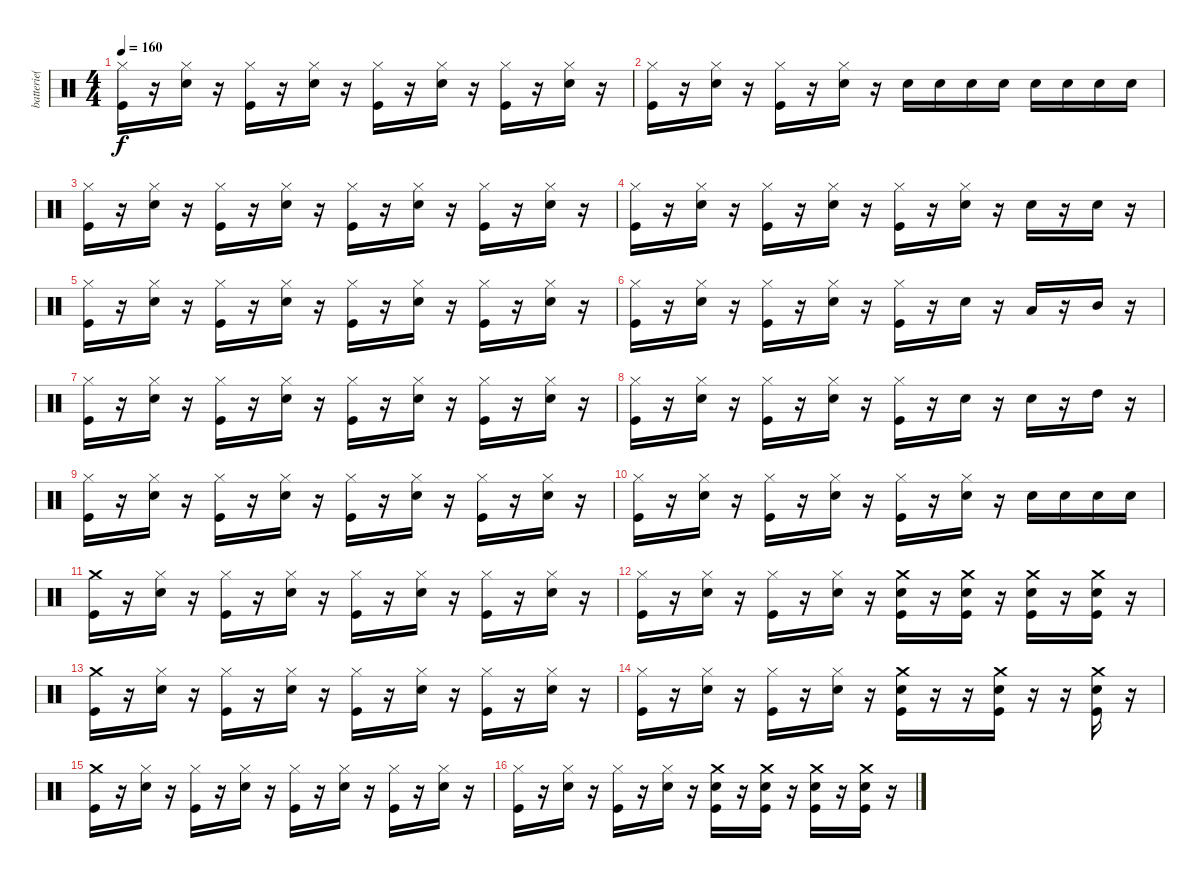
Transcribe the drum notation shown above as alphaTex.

\track ("batterie( Megger )" "batterie( ") {instrument percussion}
\staff {score}
\articulation defaults
\ts (4 4)
\tempo 160
\clef neutral
\ks c
("Hi-Hat (closed)" "Kick (hit)").16{dy f} r.16 ("Hi-Hat (closed)" "Snare (hit) 2").16 r.16 ("Hi-Hat (closed)" "Kick (hit)").16 r.16 ("Hi-Hat (closed)" "Snare (hit) 2").16 r.16 ("Hi-Hat (closed)" "Kick (hit)").16 r.16 ("Hi-Hat (closed)" "Snare (hit) 2").16 r.16 ("Hi-Hat (closed)" "Kick (hit)").16 r.16 ("Hi-Hat (closed)" "Snare (hit) 2").16 r.16 |
("Hi-Hat (closed)" "Kick (hit)").16 r.16 ("Hi-Hat (closed)" "Snare (hit) 2").16 r.16 ("Hi-Hat (closed)" "Kick (hit)").16 r.16 ("Hi-Hat (closed)" "Snare (hit) 2").16 r.16 "Snare (hit) 2".16 "Snare (hit) 2".16 "Snare (hit) 2".16 "Snare (hit) 2".16 "Snare (hit) 2".16 "Snare (hit) 2".16 "Snare (hit) 2".16 "Snare (hit) 2".16 |
("Hi-Hat (closed)" "Kick (hit)").16 r.16 ("Hi-Hat (closed)" "Snare (hit) 2").16 r.16 ("Hi-Hat (closed)" "Kick (hit)").16 r.16 ("Hi-Hat (closed)" "Snare (hit) 2").16 r.16 ("Hi-Hat (closed)" "Kick (hit)").16 r.16 ("Hi-Hat (closed)" "Snare (hit) 2").16 r.16 ("Hi-Hat (closed)" "Kick (hit)").16 r.16 ("Hi-Hat (closed)" "Snare (hit) 2").16 r.16 |
("Hi-Hat (closed)" "Kick (hit)").16 r.16 ("Hi-Hat (closed)" "Snare (hit) 2").16 r.16 ("Hi-Hat (closed)" "Kick (hit)").16 r.16 ("Hi-Hat (closed)" "Snare (hit) 2").16 r.16 ("Hi-Hat (closed)" "Kick (hit)").16 r.16 ("Hi-Hat (closed)" "Snare (hit) 2").16 r.16 "Snare (hit) 2".16 r.16 "Snare (hit) 2".16 r.16 |
("Hi-Hat (closed)" "Kick (hit)").16 r.16 ("Hi-Hat (closed)" "Snare (hit) 2").16 r.16 ("Hi-Hat (closed)" "Kick (hit)").16 r.16 ("Hi-Hat (closed)" "Snare (hit) 2").16 r.16 ("Hi-Hat (closed)" "Kick (hit)").16 r.16 ("Hi-Hat (closed)" "Snare (hit) 2").16 r.16 ("Hi-Hat (closed)" "Kick (hit)").16 r.16 ("Hi-Hat (closed)" "Snare (hit) 2").16 r.16 |
("Hi-Hat (closed)" "Kick (hit)").16 r.16 ("Hi-Hat (closed)" "Snare (hit) 2").16 r.16 ("Hi-Hat (closed)" "Kick (hit)").16 r.16 ("Hi-Hat (closed)" "Snare (hit) 2").16 r.16 ("Hi-Hat (closed)" "Kick (hit)").16 r.16 "Snare (hit) 2".16 r.16 "Low Floor Tom (hit)".16 r.16 "Mid Tom (hit)".16 r.16 |
("Hi-Hat (closed)" "Kick (hit)").16 r.16 ("Hi-Hat (closed)" "Snare (hit) 2").16 r.16 ("Hi-Hat (closed)" "Kick (hit)").16 r.16 ("Hi-Hat (closed)" "Snare (hit) 2").16 r.16 ("Hi-Hat (closed)" "Kick (hit)").16 r.16 ("Hi-Hat (closed)" "Snare (hit) 2").16 r.16 ("Hi-Hat (closed)" "Kick (hit)").16 r.16 ("Hi-Hat (closed)" "Snare (hit) 2").16 r.16 |
("Hi-Hat (closed)" "Kick (hit)").16 r.16 ("Hi-Hat (closed)" "Snare (hit) 2").16 r.16 ("Hi-Hat (closed)" "Kick (hit)").16 r.16 ("Hi-Hat (closed)" "Snare (hit) 2").16 r.16 ("Hi-Hat (closed)" "Kick (hit)").16 r.16 "Snare (hit) 2".16 r.16 "Snare (hit) 2".16 r.16 "High Tom (hit)".16 r.16 |
("Hi-Hat (closed)" "Kick (hit)").16 r.16 ("Hi-Hat (closed)" "Snare (hit) 2").16 r.16 ("Hi-Hat (closed)" "Kick (hit)").16 r.16 ("Hi-Hat (closed)" "Snare (hit) 2").16 r.16 ("Hi-Hat (closed)" "Kick (hit)").16 r.16 ("Hi-Hat (closed)" "Snare (hit) 2").16 r.16 ("Hi-Hat (closed)" "Kick (hit)").16 r.16 ("Hi-Hat (closed)" "Snare (hit) 2").16 r.16 |
("Hi-Hat (closed)" "Kick (hit)").16 r.16 ("Hi-Hat (closed)" "Snare (hit) 2").16 r.16 ("Hi-Hat (closed)" "Kick (hit)").16 r.16 ("Hi-Hat (closed)" "Snare (hit) 2").16 r.16 ("Hi-Hat (closed)" "Kick (hit)").16 r.16 ("Hi-Hat (closed)" "Snare (hit) 2").16 r.16 "Snare (hit) 2".16 "Snare (hit) 2".16 "Snare (hit) 2".16 "Snare (hit) 2".16 |
("Crash medium (hit)" "Kick (hit)").16 r.16 ("Hi-Hat (closed)" "Snare (hit) 2").16 r.16 ("Hi-Hat (closed)" "Kick (hit)").16 r.16 ("Hi-Hat (closed)" "Snare (hit) 2").16 r.16 ("Hi-Hat (closed)" "Kick (hit)").16 r.16 ("Hi-Hat (closed)" "Snare (hit) 2").16 r.16 ("Hi-Hat (closed)" "Kick (hit)").16 r.16 ("Hi-Hat (closed)" "Snare (hit) 2").16 r.16 |
("Hi-Hat (closed)" "Kick (hit)").16 r.16 ("Hi-Hat (closed)" "Snare (hit) 2").16 r.16 ("Hi-Hat (closed)" "Kick (hit)").16 r.16 ("Hi-Hat (closed)" "Snare (hit) 2").16 r.16 ("Crash medium (hit)" "Snare (hit) 2" "Kick (hit)").16 r.16 ("Crash medium (hit)" "Snare (hit) 2" "Kick (hit)").16 r.16 ("Crash medium (hit)" "Snare (hit) 2" "Kick (hit)").16 r.16 ("Crash medium (hit)" "Snare (hit) 2" "Kick (hit)").16 r.16 |
("Crash medium (hit)" "Kick (hit)").16 r.16 ("Hi-Hat (closed)" "Snare (hit) 2").16 r.16 ("Hi-Hat (closed)" "Kick (hit)").16 r.16 ("Hi-Hat (closed)" "Snare (hit) 2").16 r.16 ("Hi-Hat (closed)" "Kick (hit)").16 r.16 ("Hi-Hat (closed)" "Snare (hit) 2").16 r.16 ("Hi-Hat (closed)" "Kick (hit)").16 r.16 ("Hi-Hat (closed)" "Snare (hit) 2").16 r.16 |
("Hi-Hat (closed)" "Kick (hit)").16 r.16 ("Hi-Hat (closed)" "Snare (hit) 2").16 r.16 ("Hi-Hat (closed)" "Kick (hit)").16 r.16 ("Hi-Hat (closed)" "Snare (hit) 2").16 r.16 ("Crash medium (hit)" "Snare (hit) 2" "Kick (hit)").16 r.16 r.16 ("Crash medium (hit)" "Snare (hit) 2" "Kick (hit)").16 r.16 r.16 ("Crash medium (hit)" "Snare (hit) 2" "Kick (hit)").16 r.16 |
("Crash medium (hit)" "Kick (hit)").16 r.16 ("Hi-Hat (closed)" "Snare (hit) 2").16 r.16 ("Hi-Hat (closed)" "Kick (hit)").16 r.16 ("Hi-Hat (closed)" "Snare (hit) 2").16 r.16 ("Hi-Hat (closed)" "Kick (hit)").16 r.16 ("Hi-Hat (closed)" "Snare (hit) 2").16 r.16 ("Hi-Hat (closed)" "Kick (hit)").16 r.16 ("Hi-Hat (closed)" "Snare (hit) 2").16 r.16 |
("Hi-Hat (closed)" "Kick (hit)").16 r.16 ("Hi-Hat (closed)" "Snare (hit) 2").16 r.16 ("Hi-Hat (closed)" "Kick (hit)").16 r.16 ("Hi-Hat (closed)" "Snare (hit) 2").16 r.16 ("Crash medium (hit)" "Snare (hit) 2" "Kick (hit)").16 r.16 ("Crash medium (hit)" "Snare (hit) 2" "Kick (hit)").16 r.16 ("Crash medium (hit)" "Snare (hit) 2" "Kick (hit)").16 r.16 ("Crash medium (hit)" "Snare (hit) 2" "Kick (hit)").16 r.16
